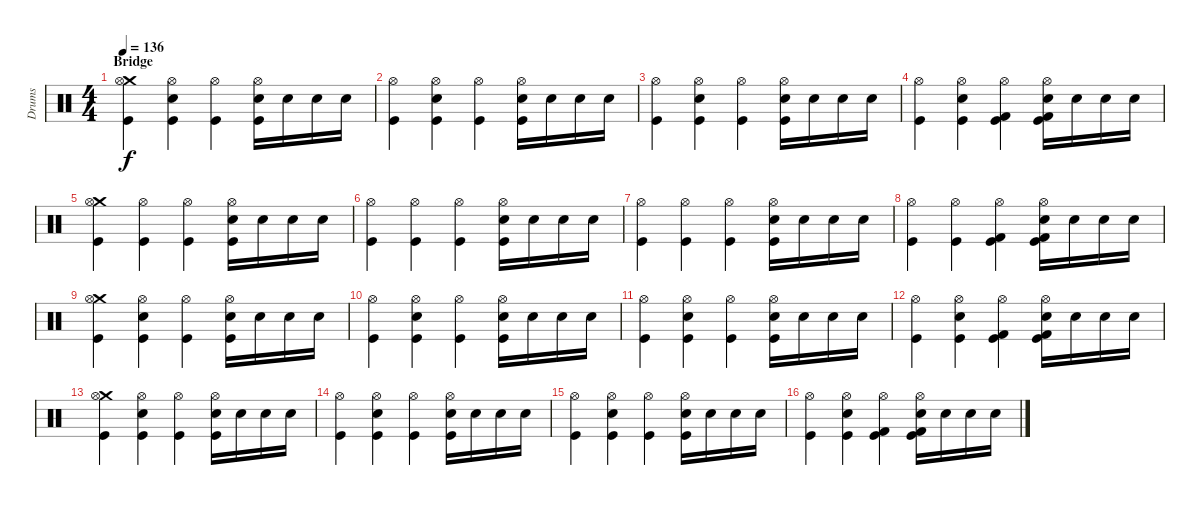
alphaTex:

\track ("Drums" "Drums") {instrument percussion}
\staff {score}
\articulation defaults
\ts (4 4)
\section ("" "Bridge")
\tempo 136
\clef neutral
\ks c
("Crash medium (hit)" "Hi-Hat (open)" "Kick (hit)").4{dy f} ("Hi-Hat (open)" "Electric Snare (hit)" "Kick (hit)").4 ("Hi-Hat (open)" "Kick (hit)").4 ("Hi-Hat (open)" "Electric Snare (hit)" "Kick (hit)").16 "Electric Snare (hit)".16 "Electric Snare (hit)".16 "Electric Snare (hit)".16 |
("Hi-Hat (open)" "Kick (hit)").4 ("Hi-Hat (open)" "Electric Snare (hit)" "Kick (hit)").4 ("Hi-Hat (open)" "Kick (hit)").4 ("Hi-Hat (open)" "Electric Snare (hit)" "Kick (hit)").16 "Electric Snare (hit)".16 "Electric Snare (hit)".16 "Electric Snare (hit)".16 |
("Hi-Hat (open)" "Kick (hit)").4 ("Hi-Hat (open)" "Electric Snare (hit)" "Kick (hit)").4 ("Hi-Hat (open)" "Kick (hit)").4 ("Hi-Hat (open)" "Electric Snare (hit)" "Kick (hit)").16 "Electric Snare (hit)".16 "Electric Snare (hit)".16 "Electric Snare (hit)".16 |
("Hi-Hat (open)" "Kick (hit)").4 ("Hi-Hat (open)" "Electric Snare (hit)" "Kick (hit)").4 ("Hi-Hat (open)" "Kick (hit) 2" "Kick (hit)").4 ("Hi-Hat (open)" "Electric Snare (hit)" "Kick (hit) 2" "Kick (hit)").16 "Electric Snare (hit)".16 "Electric Snare (hit)".16 "Electric Snare (hit)".16 |
("Crash medium (hit)" "Hi-Hat (open)" "Kick (hit)").4 ("Hi-Hat (open)" "Kick (hit)").4 ("Hi-Hat (open)" "Kick (hit)").4 ("Hi-Hat (open)" "Electric Snare (hit)" "Kick (hit)").16 "Electric Snare (hit)".16 "Electric Snare (hit)".16 "Electric Snare (hit)".16 |
("Hi-Hat (open)" "Kick (hit)").4 ("Hi-Hat (open)" "Kick (hit)").4 ("Hi-Hat (open)" "Kick (hit)").4 ("Hi-Hat (open)" "Electric Snare (hit)" "Kick (hit)").16 "Electric Snare (hit)".16 "Electric Snare (hit)".16 "Electric Snare (hit)".16 |
("Hi-Hat (open)" "Kick (hit)").4 ("Hi-Hat (open)" "Kick (hit)").4 ("Hi-Hat (open)" "Kick (hit)").4 ("Hi-Hat (open)" "Electric Snare (hit)" "Kick (hit)").16 "Electric Snare (hit)".16 "Electric Snare (hit)".16 "Electric Snare (hit)".16 |
("Hi-Hat (open)" "Kick (hit)").4 ("Hi-Hat (open)" "Kick (hit)").4 ("Hi-Hat (open)" "Kick (hit) 2" "Kick (hit)").4 ("Hi-Hat (open)" "Electric Snare (hit)" "Kick (hit) 2" "Kick (hit)").16 "Electric Snare (hit)".16 "Electric Snare (hit)".16 "Electric Snare (hit)".16 |
("Crash medium (hit)" "Hi-Hat (open)" "Kick (hit)").4 ("Hi-Hat (open)" "Electric Snare (hit)" "Kick (hit)").4 ("Hi-Hat (open)" "Kick (hit)").4 ("Hi-Hat (open)" "Electric Snare (hit)" "Kick (hit)").16 "Electric Snare (hit)".16 "Electric Snare (hit)".16 "Electric Snare (hit)".16 |
("Hi-Hat (open)" "Kick (hit)").4 ("Hi-Hat (open)" "Electric Snare (hit)" "Kick (hit)").4 ("Hi-Hat (open)" "Kick (hit)").4 ("Hi-Hat (open)" "Electric Snare (hit)" "Kick (hit)").16 "Electric Snare (hit)".16 "Electric Snare (hit)".16 "Electric Snare (hit)".16 |
("Hi-Hat (open)" "Kick (hit)").4 ("Hi-Hat (open)" "Electric Snare (hit)" "Kick (hit)").4 ("Hi-Hat (open)" "Kick (hit)").4 ("Hi-Hat (open)" "Electric Snare (hit)" "Kick (hit)").16 "Electric Snare (hit)".16 "Electric Snare (hit)".16 "Electric Snare (hit)".16 |
("Hi-Hat (open)" "Kick (hit)").4 ("Hi-Hat (open)" "Electric Snare (hit)" "Kick (hit)").4 ("Hi-Hat (open)" "Kick (hit) 2" "Kick (hit)").4 ("Hi-Hat (open)" "Electric Snare (hit)" "Kick (hit) 2" "Kick (hit)").16 "Electric Snare (hit)".16 "Electric Snare (hit)".16 "Electric Snare (hit)".16 |
("Crash medium (hit)" "Hi-Hat (open)" "Kick (hit)").4 ("Hi-Hat (open)" "Electric Snare (hit)" "Kick (hit)").4 ("Hi-Hat (open)" "Kick (hit)").4 ("Hi-Hat (open)" "Electric Snare (hit)" "Kick (hit)").16 "Electric Snare (hit)".16 "Electric Snare (hit)".16 "Electric Snare (hit)".16 |
("Hi-Hat (open)" "Kick (hit)").4 ("Hi-Hat (open)" "Electric Snare (hit)" "Kick (hit)").4 ("Hi-Hat (open)" "Kick (hit)").4 ("Hi-Hat (open)" "Electric Snare (hit)" "Kick (hit)").16 "Electric Snare (hit)".16 "Electric Snare (hit)".16 "Electric Snare (hit)".16 |
("Hi-Hat (open)" "Kick (hit)").4 ("Hi-Hat (open)" "Electric Snare (hit)" "Kick (hit)").4 ("Hi-Hat (open)" "Kick (hit)").4 ("Hi-Hat (open)" "Electric Snare (hit)" "Kick (hit)").16 "Electric Snare (hit)".16 "Electric Snare (hit)".16 "Electric Snare (hit)".16 |
("Hi-Hat (open)" "Kick (hit)").4 ("Hi-Hat (open)" "Electric Snare (hit)" "Kick (hit)").4 ("Hi-Hat (open)" "Kick (hit) 2" "Kick (hit)").4 ("Hi-Hat (open)" "Electric Snare (hit)" "Kick (hit) 2" "Kick (hit)").16 "Electric Snare (hit)".16 "Electric Snare (hit)".16 "Electric Snare (hit)".16
